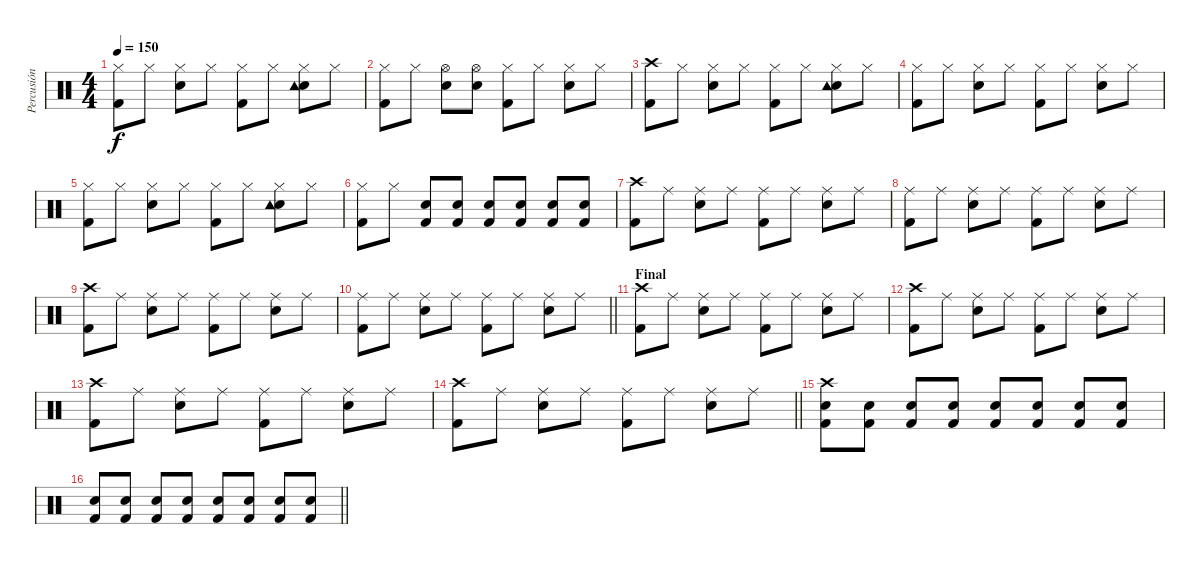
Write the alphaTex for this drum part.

\track ("Percusión" "Percusión") {instrument percussion}
\staff {score}
\articulation defaults
\ts (4 4)
\tempo 150
\clef neutral
\ks c
("Hi-Hat (closed)" "Kick (hit) 2").8{dy f} "Hi-Hat (closed)".8 ("Hi-Hat (closed)" "Snare (hit) 2").8 "Hi-Hat (closed)".8 ("Hi-Hat (closed)" "Kick (hit) 2").8 "Hi-Hat (closed)".8 ("Hi-Hat (closed)" "Snare (hit) 2" "Tambourine (hit)").8 "Hi-Hat (closed)".8 |
("Hi-Hat (closed)" "Kick (hit) 2").8 "Hi-Hat (closed)".8 ("Hi-Hat (open)" "Snare (hit) 2").8 ("Hi-Hat (open)" "Snare (hit) 2").8 ("Hi-Hat (closed)" "Kick (hit) 2").8 "Hi-Hat (closed)".8 ("Hi-Hat (closed)" "Snare (hit) 2").8 "Hi-Hat (closed)".8 |
("Crash high (hit)" "Kick (hit) 2").8 "Hi-Hat (closed)".8 ("Hi-Hat (closed)" "Snare (hit) 2").8 "Hi-Hat (closed)".8 ("Hi-Hat (closed)" "Kick (hit) 2").8 "Hi-Hat (closed)".8 ("Hi-Hat (closed)" "Snare (hit) 2" "Tambourine (hit)").8 "Hi-Hat (closed)".8 |
("Hi-Hat (closed)" "Kick (hit) 2").8 "Hi-Hat (closed)".8 ("Hi-Hat (closed)" "Snare (hit) 2").8 "Hi-Hat (closed)".8 ("Hi-Hat (closed)" "Kick (hit) 2").8 "Hi-Hat (closed)".8 ("Hi-Hat (closed)" "Snare (hit) 2").8 "Hi-Hat (closed)".8 |
("Hi-Hat (closed)" "Kick (hit) 2").8 "Hi-Hat (closed)".8 ("Hi-Hat (closed)" "Snare (hit) 2").8 "Hi-Hat (closed)".8 ("Hi-Hat (closed)" "Kick (hit) 2").8 "Hi-Hat (closed)".8 ("Hi-Hat (closed)" "Snare (hit) 2" "Tambourine (hit)").8 "Hi-Hat (closed)".8 |
("Hi-Hat (closed)" "Kick (hit) 2").8 "Hi-Hat (closed)".8 ("Kick (hit) 2" "Snare (hit) 2").8 ("Kick (hit) 2" "Snare (hit) 2").8 ("Kick (hit) 2" "Snare (hit) 2").8 ("Kick (hit) 2" "Snare (hit) 2").8 ("Kick (hit) 2" "Snare (hit) 2").8 ("Kick (hit) 2" "Snare (hit) 2").8 |
("Crash high (hit)" "Kick (hit) 2").8 "Ride (middle)".8 ("Ride (middle)" "Snare (hit) 2").8 "Ride (middle)".8 ("Ride (middle)" "Kick (hit) 2").8 "Ride (middle)".8 ("Ride (middle)" "Snare (hit) 2").8 "Ride (middle)".8 |
("Ride (middle)" "Kick (hit) 2").8 "Ride (middle)".8 ("Ride (middle)" "Snare (hit) 2").8 "Ride (middle)".8 ("Ride (middle)" "Kick (hit) 2").8 "Ride (middle)".8 ("Ride (middle)" "Snare (hit) 2").8 "Ride (middle)".8 |
("Crash high (hit)" "Kick (hit) 2").8 "Ride (middle)".8 ("Ride (middle)" "Snare (hit) 2").8 "Ride (middle)".8 ("Ride (middle)" "Kick (hit) 2").8 "Ride (middle)".8 ("Ride (middle)" "Snare (hit) 2").8 "Ride (middle)".8 |
\barLineRight lightlight
("Ride (middle)" "Kick (hit) 2").8 "Ride (middle)".8 ("Ride (middle)" "Snare (hit) 2").8 "Ride (middle)".8 ("Ride (middle)" "Kick (hit) 2").8 "Ride (middle)".8 ("Ride (middle)" "Snare (hit) 2").8 "Ride (middle)".8 |
\section ("" "Final")
("Crash high (hit)" "Kick (hit) 2").8 "Ride (middle)".8 ("Ride (middle)" "Snare (hit) 2").8 "Ride (middle)".8 ("Ride (middle)" "Kick (hit) 2").8 "Ride (middle)".8 ("Ride (middle)" "Snare (hit) 2").8 "Ride (middle)".8 |
("Crash high (hit)" "Kick (hit) 2").8 "Ride (middle)".8 ("Ride (middle)" "Snare (hit) 2").8 "Ride (middle)".8 ("Ride (middle)" "Kick (hit) 2").8 "Ride (middle)".8 ("Ride (middle)" "Snare (hit) 2").8 "Ride (middle)".8 |
("Crash high (hit)" "Kick (hit) 2").8 "Ride (middle)".8 ("Ride (middle)" "Snare (hit) 2").8 "Ride (middle)".8 ("Ride (middle)" "Kick (hit) 2").8 "Ride (middle)".8 ("Ride (middle)" "Snare (hit) 2").8 "Ride (middle)".8 |
\barLineRight lightlight
("Crash high (hit)" "Kick (hit) 2").8 "Ride (middle)".8 ("Ride (middle)" "Snare (hit) 2").8 "Ride (middle)".8 ("Ride (middle)" "Kick (hit) 2").8 "Ride (middle)".8 ("Ride (middle)" "Snare (hit) 2").8 "Ride (middle)".8 |
("Crash high (hit)" "Snare (hit) 2" "Kick (hit) 2").8 ("Snare (hit) 2" "Kick (hit) 2").8 ("Snare (hit) 2" "Kick (hit) 2").8 ("Snare (hit) 2" "Kick (hit) 2").8 ("Snare (hit) 2" "Kick (hit) 2").8 ("Snare (hit) 2" "Kick (hit) 2").8 ("Snare (hit) 2" "Kick (hit) 2").8 ("Snare (hit) 2" "Kick (hit) 2").8 |
\barLineRight lightlight
("Snare (hit) 2" "Kick (hit) 2").8 ("Snare (hit) 2" "Kick (hit) 2").8 ("Snare (hit) 2" "Kick (hit) 2").8 ("Snare (hit) 2" "Kick (hit) 2").8 ("Snare (hit) 2" "Kick (hit) 2").8 ("Snare (hit) 2" "Kick (hit) 2").8 ("Snare (hit) 2" "Kick (hit) 2").8 ("Snare (hit) 2" "Kick (hit) 2").8
